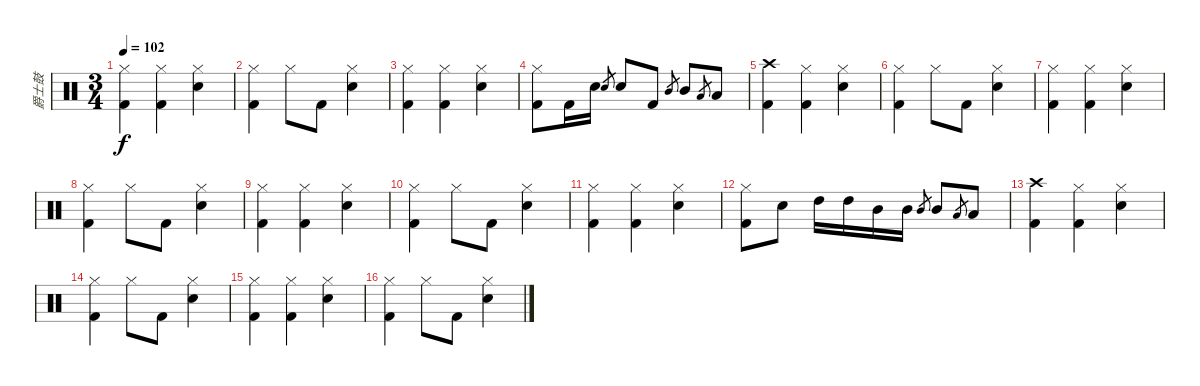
\track ("爵士鼓" "爵士鼓") {instrument percussion}
\staff {score}
\articulation defaults
\ts (3 4)
\tempo 102
\clef neutral
\ks c
("Hi-Hat (closed)" "Kick (hit) 2").4{dy f} ("Hi-Hat (closed)" "Kick (hit) 2").4 ("Hi-Hat (closed)" "Electric Snare (hit)").4 |
("Hi-Hat (closed)" "Kick (hit) 2").4 "Hi-Hat (closed)".8 "Kick (hit) 2".8 ("Hi-Hat (closed)" "Electric Snare (hit)").4 |
("Hi-Hat (closed)" "Kick (hit) 2").4 ("Hi-Hat (closed)" "Kick (hit) 2").4 ("Hi-Hat (closed)" "Electric Snare (hit)").4 |
("Hi-Hat (closed)" "Kick (hit) 2").8 "Kick (hit) 2".16 "Electric Snare (hit)".16 "Electric Snare (hit)".8{gr} "Electric Snare (hit)".8 "Kick (hit) 2".8 "Mid Tom (hit)".8{gr} "Mid Tom (hit)".8 "Low Tom (hit)".8{gr} "Low Tom (hit)".8 |
("Crash high (hit)" "Kick (hit) 2").4 ("Hi-Hat (closed)" "Kick (hit) 2").4 ("Hi-Hat (closed)" "Electric Snare (hit)").4 |
("Hi-Hat (closed)" "Kick (hit) 2").4 "Hi-Hat (closed)".8 "Kick (hit) 2".8 ("Hi-Hat (closed)" "Electric Snare (hit)").4 |
("Hi-Hat (closed)" "Kick (hit) 2").4 ("Hi-Hat (closed)" "Kick (hit) 2").4 ("Hi-Hat (closed)" "Electric Snare (hit)").4 |
("Hi-Hat (closed)" "Kick (hit) 2").4 "Hi-Hat (closed)".8 "Kick (hit) 2".8 ("Hi-Hat (closed)" "Electric Snare (hit)").4 |
("Hi-Hat (closed)" "Kick (hit) 2").4 ("Hi-Hat (closed)" "Kick (hit) 2").4 ("Hi-Hat (closed)" "Electric Snare (hit)").4 |
("Hi-Hat (closed)" "Kick (hit) 2").4 "Hi-Hat (closed)".8 "Kick (hit) 2".8 ("Hi-Hat (closed)" "Electric Snare (hit)").4 |
("Hi-Hat (closed)" "Kick (hit) 2").4 ("Hi-Hat (closed)" "Kick (hit) 2").4 ("Hi-Hat (closed)" "Electric Snare (hit)").4 |
("Hi-Hat (closed)" "Kick (hit) 2").8 "Electric Snare (hit)".8 "High Tom (hit)".16 "High Tom (hit)".16 "Mid Tom (hit)".16 "Mid Tom (hit)".16 "Mid Tom (hit)".8{gr} "Mid Tom (hit)".8 "Low Tom (hit)".8{gr} "Low Tom (hit)".8 |
("Crash high (hit)" "Kick (hit) 2").4 ("Hi-Hat (closed)" "Kick (hit) 2").4 ("Hi-Hat (closed)" "Electric Snare (hit)").4 |
("Hi-Hat (closed)" "Kick (hit) 2").4 "Hi-Hat (closed)".8 "Kick (hit) 2".8 ("Hi-Hat (closed)" "Electric Snare (hit)").4 |
("Hi-Hat (closed)" "Kick (hit) 2").4 ("Hi-Hat (closed)" "Kick (hit) 2").4 ("Hi-Hat (closed)" "Electric Snare (hit)").4 |
("Hi-Hat (closed)" "Kick (hit) 2").4 "Hi-Hat (closed)".8 "Kick (hit) 2".8 ("Hi-Hat (closed)" "Electric Snare (hit)").4
